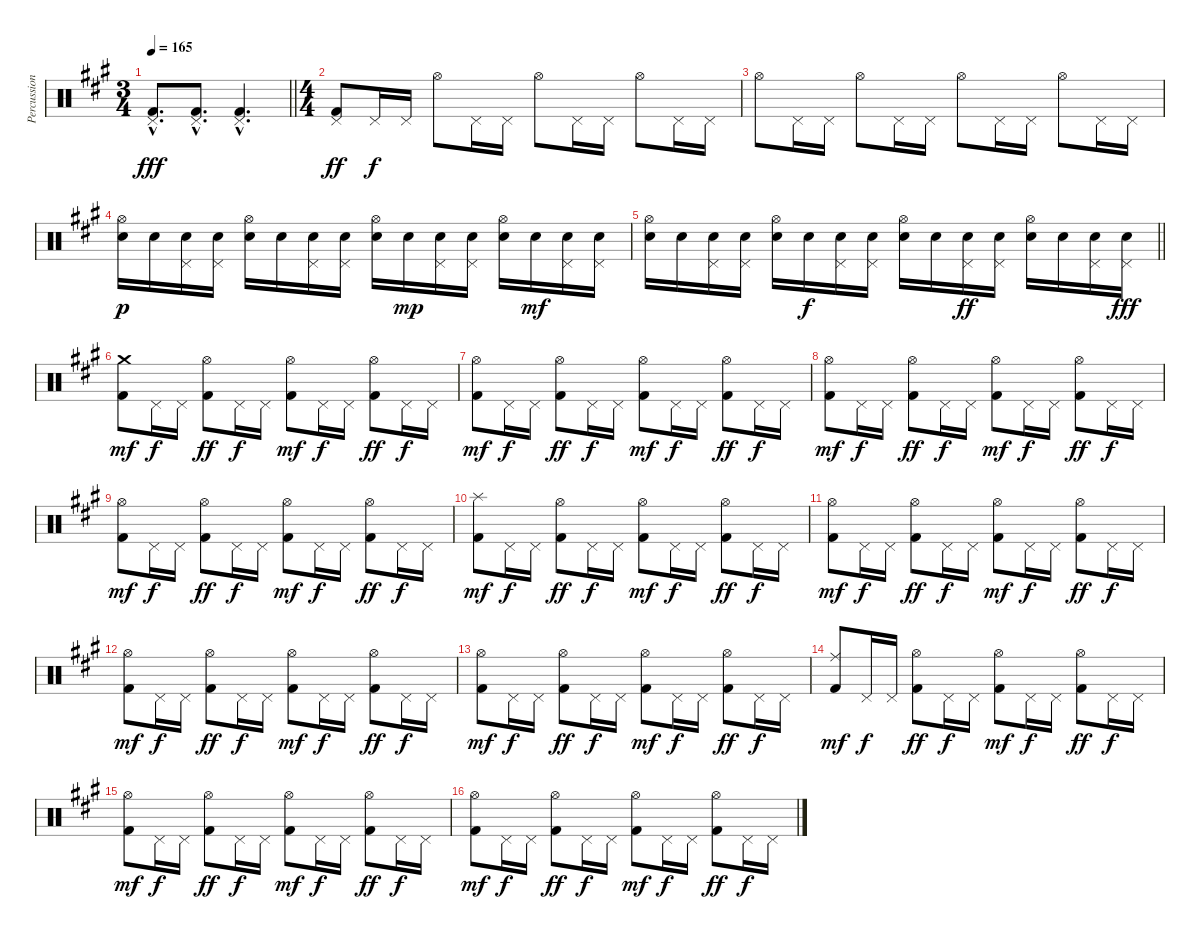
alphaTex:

\track ("Percussion" "Percussion") {instrument percussion}
\staff {score}
\articulation defaults
\ts (3 4)
\tempo 165
\clef neutral
\barLineRight lightlight
\ks a
("Pedal Hi-Hat (hit)"{hac} "Kick (hit) 2"{hac}).8{d dy fff} ("Pedal Hi-Hat (hit)"{hac} "Kick (hit) 2"{hac}).8{d} ("Pedal Hi-Hat (hit)"{hac} "Kick (hit) 2"{hac}).4{d} |
\ts (4 4)
("Pedal Hi-Hat (hit)" "Kick (hit) 2").8{dy ff} "Pedal Hi-Hat (hit)".16{dy f} "Pedal Hi-Hat (hit)".16 "Hi-Hat (open)".8 "Pedal Hi-Hat (hit)".16 "Pedal Hi-Hat (hit)".16 "Hi-Hat (open)".8 "Pedal Hi-Hat (hit)".16 "Pedal Hi-Hat (hit)".16 "Hi-Hat (open)".8 "Pedal Hi-Hat (hit)".16 "Pedal Hi-Hat (hit)".16 |
"Hi-Hat (open)".8 "Pedal Hi-Hat (hit)".16 "Pedal Hi-Hat (hit)".16 "Hi-Hat (open)".8 "Pedal Hi-Hat (hit)".16 "Pedal Hi-Hat (hit)".16 "Hi-Hat (open)".8 "Pedal Hi-Hat (hit)".16 "Pedal Hi-Hat (hit)".16 "Hi-Hat (open)".8 "Pedal Hi-Hat (hit)".16 "Pedal Hi-Hat (hit)".16 |
("Hi-Hat (open)" "Electric Snare (hit)").16{dy p} "Electric Snare (hit)".16 ("Pedal Hi-Hat (hit)" "Electric Snare (hit)").16 ("Pedal Hi-Hat (hit)" "Electric Snare (hit)").16 ("Hi-Hat (open)" "Electric Snare (hit)").16 "Electric Snare (hit)".16 ("Pedal Hi-Hat (hit)" "Electric Snare (hit)").16 ("Pedal Hi-Hat (hit)" "Electric Snare (hit)").16 ("Hi-Hat (open)" "Electric Snare (hit)").16 "Electric Snare (hit)".16{dy mp} ("Pedal Hi-Hat (hit)" "Electric Snare (hit)").16 ("Pedal Hi-Hat (hit)" "Electric Snare (hit)").16 ("Hi-Hat (open)" "Electric Snare (hit)").16 "Electric Snare (hit)".16{dy mf} ("Pedal Hi-Hat (hit)" "Electric Snare (hit)").16 ("Pedal Hi-Hat (hit)" "Electric Snare (hit)").16 |
\barLineRight lightlight
("Hi-Hat (open)" "Electric Snare (hit)").16 "Electric Snare (hit)".16 ("Pedal Hi-Hat (hit)" "Electric Snare (hit)").16 ("Pedal Hi-Hat (hit)" "Electric Snare (hit)").16 ("Hi-Hat (open)" "Electric Snare (hit)").16 "Electric Snare (hit)".16{dy f} ("Pedal Hi-Hat (hit)" "Electric Snare (hit)").16 ("Pedal Hi-Hat (hit)" "Electric Snare (hit)").16 ("Hi-Hat (open)" "Electric Snare (hit)").16 "Electric Snare (hit)".16 ("Pedal Hi-Hat (hit)" "Electric Snare (hit)").16{dy ff} ("Pedal Hi-Hat (hit)" "Electric Snare (hit)").16 ("Hi-Hat (open)" "Electric Snare (hit)").16 "Electric Snare (hit)".16 ("Pedal Hi-Hat (hit)" "Electric Snare (hit)").16 ("Pedal Hi-Hat (hit)" "Electric Snare (hit)").16{dy fff} |
("Crash medium (hit)" "Kick (hit) 2").8{dy mf} "Pedal Hi-Hat (hit)".16{dy f} "Pedal Hi-Hat (hit)".16 ("Hi-Hat (open)" "Kick (hit) 2").8{dy ff} "Pedal Hi-Hat (hit)".16{dy f} "Pedal Hi-Hat (hit)".16 ("Hi-Hat (open)" "Kick (hit) 2").8{dy mf} "Pedal Hi-Hat (hit)".16{dy f} "Pedal Hi-Hat (hit)".16 ("Hi-Hat (open)" "Kick (hit) 2").8{dy ff} "Pedal Hi-Hat (hit)".16{dy f} "Pedal Hi-Hat (hit)".16 |
("Hi-Hat (open)" "Kick (hit) 2").8{dy mf} "Pedal Hi-Hat (hit)".16{dy f} "Pedal Hi-Hat (hit)".16 ("Hi-Hat (open)" "Kick (hit) 2").8{dy ff} "Pedal Hi-Hat (hit)".16{dy f} "Pedal Hi-Hat (hit)".16 ("Hi-Hat (open)" "Kick (hit) 2").8{dy mf} "Pedal Hi-Hat (hit)".16{dy f} "Pedal Hi-Hat (hit)".16 ("Hi-Hat (open)" "Kick (hit) 2").8{dy ff} "Pedal Hi-Hat (hit)".16{dy f} "Pedal Hi-Hat (hit)".16 |
("Hi-Hat (open)" "Kick (hit) 2").8{dy mf} "Pedal Hi-Hat (hit)".16{dy f} "Pedal Hi-Hat (hit)".16 ("Hi-Hat (open)" "Kick (hit) 2").8{dy ff} "Pedal Hi-Hat (hit)".16{dy f} "Pedal Hi-Hat (hit)".16 ("Hi-Hat (open)" "Kick (hit) 2").8{dy mf} "Pedal Hi-Hat (hit)".16{dy f} "Pedal Hi-Hat (hit)".16 ("Hi-Hat (open)" "Kick (hit) 2").8{dy ff} "Pedal Hi-Hat (hit)".16{dy f} "Pedal Hi-Hat (hit)".16 |
("Hi-Hat (open)" "Kick (hit) 2").8{dy mf} "Pedal Hi-Hat (hit)".16{dy f} "Pedal Hi-Hat (hit)".16 ("Hi-Hat (open)" "Kick (hit) 2").8{dy ff} "Pedal Hi-Hat (hit)".16{dy f} "Pedal Hi-Hat (hit)".16 ("Hi-Hat (open)" "Kick (hit) 2").8{dy mf} "Pedal Hi-Hat (hit)".16{dy f} "Pedal Hi-Hat (hit)".16 ("Hi-Hat (open)" "Kick (hit) 2").8{dy ff} "Pedal Hi-Hat (hit)".16{dy f} "Pedal Hi-Hat (hit)".16 |
("Splash (hit)" "Kick (hit) 2").8{dy mf} "Pedal Hi-Hat (hit)".16{dy f} "Pedal Hi-Hat (hit)".16 ("Hi-Hat (open)" "Kick (hit) 2").8{dy ff} "Pedal Hi-Hat (hit)".16{dy f} "Pedal Hi-Hat (hit)".16 ("Hi-Hat (open)" "Kick (hit) 2").8{dy mf} "Pedal Hi-Hat (hit)".16{dy f} "Pedal Hi-Hat (hit)".16 ("Hi-Hat (open)" "Kick (hit) 2").8{dy ff} "Pedal Hi-Hat (hit)".16{dy f} "Pedal Hi-Hat (hit)".16 |
("Hi-Hat (open)" "Kick (hit) 2").8{dy mf} "Pedal Hi-Hat (hit)".16{dy f} "Pedal Hi-Hat (hit)".16 ("Hi-Hat (open)" "Kick (hit) 2").8{dy ff} "Pedal Hi-Hat (hit)".16{dy f} "Pedal Hi-Hat (hit)".16 ("Hi-Hat (open)" "Kick (hit) 2").8{dy mf} "Pedal Hi-Hat (hit)".16{dy f} "Pedal Hi-Hat (hit)".16 ("Hi-Hat (open)" "Kick (hit) 2").8{dy ff} "Pedal Hi-Hat (hit)".16{dy f} "Pedal Hi-Hat (hit)".16 |
("Hi-Hat (open)" "Kick (hit) 2").8{dy mf} "Pedal Hi-Hat (hit)".16{dy f} "Pedal Hi-Hat (hit)".16 ("Hi-Hat (open)" "Kick (hit) 2").8{dy ff} "Pedal Hi-Hat (hit)".16{dy f} "Pedal Hi-Hat (hit)".16 ("Hi-Hat (open)" "Kick (hit) 2").8{dy mf} "Pedal Hi-Hat (hit)".16{dy f} "Pedal Hi-Hat (hit)".16 ("Hi-Hat (open)" "Kick (hit) 2").8{dy ff} "Pedal Hi-Hat (hit)".16{dy f} "Pedal Hi-Hat (hit)".16 |
("Hi-Hat (open)" "Kick (hit) 2").8{dy mf} "Pedal Hi-Hat (hit)".16{dy f} "Pedal Hi-Hat (hit)".16 ("Hi-Hat (open)" "Kick (hit) 2").8{dy ff} "Pedal Hi-Hat (hit)".16{dy f} "Pedal Hi-Hat (hit)".16 ("Hi-Hat (open)" "Kick (hit) 2").8{dy mf} "Pedal Hi-Hat (hit)".16{dy f} "Pedal Hi-Hat (hit)".16 ("Hi-Hat (open)" "Kick (hit) 2").8{dy ff} "Pedal Hi-Hat (hit)".16{dy f} "Pedal Hi-Hat (hit)".16 |
("Ride (middle)" "Kick (hit) 2").8{dy mf} "Pedal Hi-Hat (hit)".16{dy f} "Pedal Hi-Hat (hit)".16 ("Hi-Hat (open)" "Kick (hit) 2").8{dy ff} "Pedal Hi-Hat (hit)".16{dy f} "Pedal Hi-Hat (hit)".16 ("Hi-Hat (open)" "Kick (hit) 2").8{dy mf} "Pedal Hi-Hat (hit)".16{dy f} "Pedal Hi-Hat (hit)".16 ("Hi-Hat (open)" "Kick (hit) 2").8{dy ff} "Pedal Hi-Hat (hit)".16{dy f} "Pedal Hi-Hat (hit)".16 |
("Hi-Hat (open)" "Kick (hit) 2").8{dy mf} "Pedal Hi-Hat (hit)".16{dy f} "Pedal Hi-Hat (hit)".16 ("Hi-Hat (open)" "Kick (hit) 2").8{dy ff} "Pedal Hi-Hat (hit)".16{dy f} "Pedal Hi-Hat (hit)".16 ("Hi-Hat (open)" "Kick (hit) 2").8{dy mf} "Pedal Hi-Hat (hit)".16{dy f} "Pedal Hi-Hat (hit)".16 ("Hi-Hat (open)" "Kick (hit) 2").8{dy ff} "Pedal Hi-Hat (hit)".16{dy f} "Pedal Hi-Hat (hit)".16 |
("Hi-Hat (open)" "Kick (hit) 2").8{dy mf} "Pedal Hi-Hat (hit)".16{dy f} "Pedal Hi-Hat (hit)".16 ("Hi-Hat (open)" "Kick (hit) 2").8{dy ff} "Pedal Hi-Hat (hit)".16{dy f} "Pedal Hi-Hat (hit)".16 ("Hi-Hat (open)" "Kick (hit) 2").8{dy mf} "Pedal Hi-Hat (hit)".16{dy f} "Pedal Hi-Hat (hit)".16 ("Hi-Hat (open)" "Kick (hit) 2").8{dy ff} "Pedal Hi-Hat (hit)".16{dy f} "Pedal Hi-Hat (hit)".16
